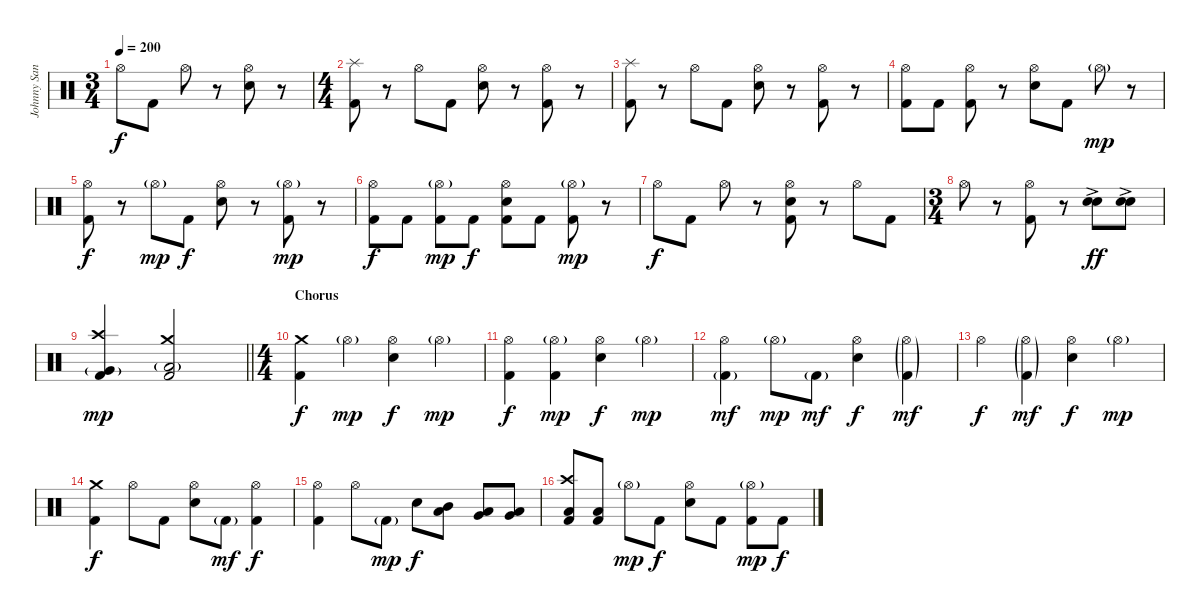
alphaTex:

\track ("Johnny Sandin" "Johnny San") {instrument percussion}
\staff {score}
\articulation defaults
\ts (3 4)
\tempo 200
\clef neutral
\ks c "Hi-Hat (open)".8{dy f} "Kick (hit) 2".8 "Hi-Hat (open)".8
r.8 ("Hi-Hat (open)" "Snare (hit) 2").8 r.8 |
\ts (4 4)
("Splash (hit)" "Kick (hit) 2").8 r.8 "Hi-Hat (open)".8 "Kick (hit) 2".8 ("Hi-Hat (open)" "Snare (hit) 2").8 r.8 ("Hi-Hat (open)" "Kick (hit) 2").8 r.8 |
("Splash (hit)" "Kick (hit) 2").8 r.8 "Hi-Hat (open)".8 "Kick (hit) 2".8 ("Hi-Hat (open)" "Snare (hit) 2").8 r.8 ("Hi-Hat (open)" "Kick (hit) 2").8 r.8 |
("Hi-Hat (open)" "Kick (hit) 2").8 "Kick (hit) 2".8 ("Hi-Hat (open)" "Kick (hit) 2").8 r.8 ("Hi-Hat (open)" "Snare (hit) 2").8 "Kick (hit) 2".8 "Hi-Hat (open)"{g}.8{dy mp} r.8 |
("Hi-Hat (open)" "Kick (hit) 2").8{dy f} r.8 "Hi-Hat (open)"{g}.8{dy mp} "Kick (hit) 2".8{dy f} ("Hi-Hat (open)" "Snare (hit) 2").8 r.8 ("Hi-Hat (open)"{g} "Kick (hit) 2").8{dy mp} r.8 |
("Hi-Hat (open)" "Kick (hit) 2").8{dy f} "Kick (hit) 2".8 ("Hi-Hat (open)"{g} "Kick (hit) 2").8{dy mp} "Kick (hit) 2".8{dy f} ("Hi-Hat (open)" "Snare (hit) 2" "Kick (hit) 2").8 "Kick (hit) 2".8 ("Hi-Hat (open)"{g} "Kick (hit) 2").8{dy mp} r.8 |
"Hi-Hat (open)".8{dy f} "Kick (hit) 2".8 "Hi-Hat (open)".8 r.8 ("Hi-Hat (open)" "Snare (hit) 2" "Kick (hit) 2").8 r.8 "Hi-Hat (open)".8 "Kick (hit) 2".8 |
\ts (3 4)
"Hi-Hat (open)".8 r.8 ("Hi-Hat (open)" "Kick (hit) 2").8 r.8 ("Snare (hit) 2"{ac} "Snare (hit) 2"{ac}).8{dy ff} ("Snare (hit) 2"{ac} "Snare (hit) 2"{ac}).8 |
\barLineRight lightlight
("Crash high (hit)" "Very Low Tom (hit)"{g} "Kick (hit) 2").4{dy mp} ("Crash medium (hit)" "Low Floor Tom (hit)"{g} "Kick (hit) 2").2 |
\ts (4 4)
\section ("" "Chorus")
("Crash medium (hit)" "Kick (hit) 2").4{dy f} "Hi-Hat (open)"{g}.4{dy mp} ("Hi-Hat (open)" "Snare (hit) 2").4{dy f} "Hi-Hat (open)"{g}.4{dy mp} |
("Hi-Hat (open)" "Kick (hit) 2").4{dy f} ("Hi-Hat (open)"{g} "Kick (hit) 2").4{dy mp} ("Hi-Hat (open)" "Snare (hit) 2").4{dy f} "Hi-Hat (open)"{g}.4{dy mp} |
("Hi-Hat (open)" "Kick (hit) 2"{g}).4{dy mf} "Hi-Hat (open)"{g}.8{dy mp} "Kick (hit) 2"{g}.8{dy mf} ("Hi-Hat (open)" "Snare (hit) 2").4{dy f} ("Hi-Hat (open)"{g} "Kick (hit) 2"{g}).4{dy mf} |
"Hi-Hat (open)".4{dy f} ("Hi-Hat (open)"{g} "Kick (hit) 2"{g}).4{dy mf} ("Hi-Hat (open)" "Snare (hit) 2").4{dy f} "Hi-Hat (open)"{g}.4{dy mp} |
("Crash medium (hit)" "Kick (hit) 2").4{dy f} "Hi-Hat (open)".8 "Kick (hit) 2".8 ("Hi-Hat (open)" "Snare (hit) 2").8 "Kick (hit) 2"{g}.8{dy mf} ("Hi-Hat (open)" "Kick (hit) 2").4{dy f} |
("Hi-Hat (open)" "Kick (hit) 2").4 "Hi-Hat (open)".8 "Kick (hit) 2"{g}.8{dy mp} "Snare (hit) 2".8{dy f} ("Mid Tom (hit)" "Low Tom (hit)").8 ("Low Tom (hit)" "Very Low Tom (hit)").8 ("Very Low Tom (hit)" "Low Floor Tom (hit)").8 |
("Crash high (hit)" "Low Floor Tom (hit)" "Kick (hit) 2").8 ("Low Floor Tom (hit)" "Kick (hit) 2").8 "Hi-Hat (open)"{g}.8{dy mp} "Kick (hit) 2".8{dy f} ("Hi-Hat (open)" "Snare (hit) 2").8 "Kick (hit) 2".8 ("Hi-Hat (open)"{g} "Kick (hit) 2").8{dy mp} "Kick (hit) 2".8{dy f}
